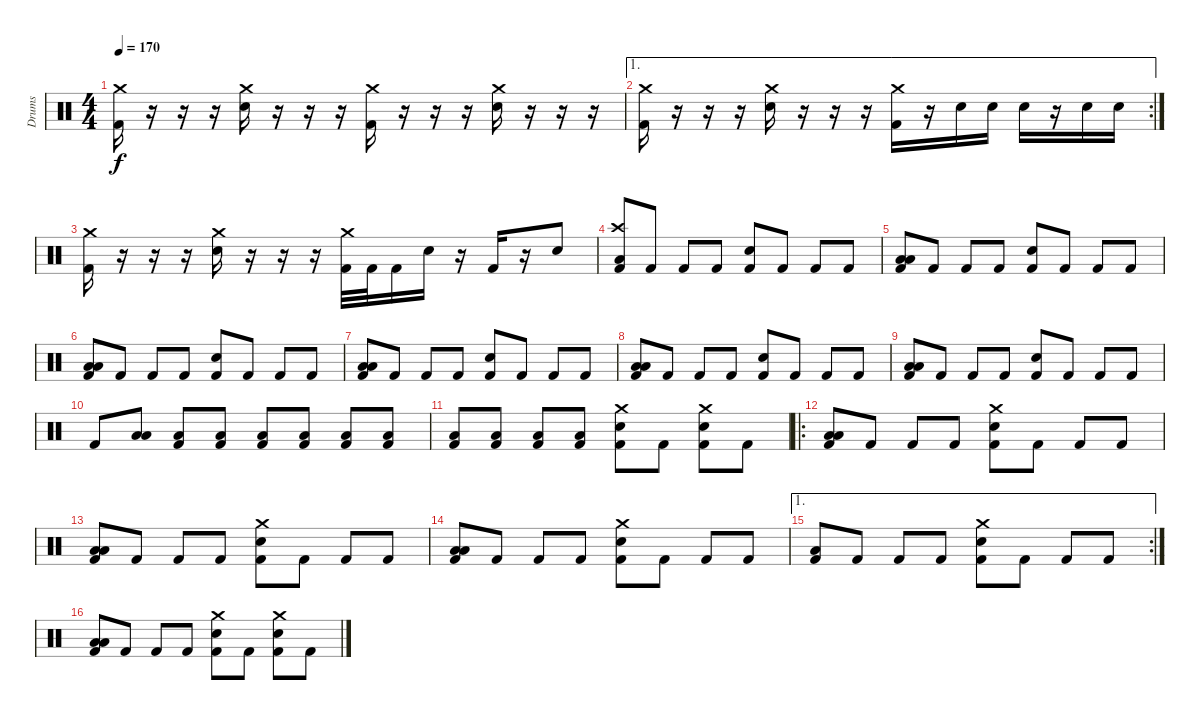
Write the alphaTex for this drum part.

\track ("Drums" "Drums") {instrument percussion}
\staff {score}
\articulation defaults
\ts (4 4)
\tempo 170
\clef neutral
\ks c
("Crash medium (hit)" "Kick (hit) 2").16{dy f} r.16 r.16 r.16 ("Crash medium (hit)" "Electric Snare (hit)").16 r.16 r.16 r.16 ("Crash medium (hit)" "Kick (hit) 2").16 r.16 r.16 r.16 ("Crash medium (hit)" "Electric Snare (hit)").16 r.16 r.16 r.16 |
\ae 1
\rc 2
("Crash medium (hit)" "Kick (hit) 2").16 r.16 r.16 r.16 ("Crash medium (hit)" "Electric Snare (hit)").16 r.16 r.16 r.16 ("Crash medium (hit)" "Kick (hit) 2").16 r.16 "Electric Snare (hit)".16 "Electric Snare (hit)".16 "Electric Snare (hit)".16 r.16 "Electric Snare (hit)".16 "Electric Snare (hit)".16 |
("Crash medium (hit)" "Kick (hit) 2").16 r.16 r.16 r.16 ("Crash medium (hit)" "Electric Snare (hit)").16 r.16 r.16 r.16 ("Crash medium (hit)" "Kick (hit) 2").32 "Kick (hit) 2".32 "Kick (hit) 2".16 "Electric Snare (hit)".16 r.16 "Kick (hit) 2".16 r.16 "Electric Snare (hit)".8 |
("Crash high (hit)" "Low Tom (hit)" "Kick (hit) 2").8 "Kick (hit) 2".8 "Kick (hit) 2".8 "Kick (hit) 2".8 ("Electric Snare (hit)" "Kick (hit) 2").8 "Kick (hit) 2".8 "Kick (hit) 2".8 "Kick (hit) 2".8 |
("Low Tom (hit)" "Low Tom (hit)" "Kick (hit) 2").8 "Kick (hit) 2".8 "Kick (hit) 2".8 "Kick (hit) 2".8 ("Electric Snare (hit)" "Kick (hit) 2").8 "Kick (hit) 2".8 "Kick (hit) 2".8 "Kick (hit) 2".8 |
("Low Tom (hit)" "Low Tom (hit)" "Kick (hit) 2").8 "Kick (hit) 2".8 "Kick (hit) 2".8 "Kick (hit) 2".8 ("Electric Snare (hit)" "Kick (hit) 2").8 "Kick (hit) 2".8 "Kick (hit) 2".8 "Kick (hit) 2".8 |
("Low Tom (hit)" "Low Tom (hit)" "Kick (hit) 2").8 "Kick (hit) 2".8 "Kick (hit) 2".8 "Kick (hit) 2".8 ("Electric Snare (hit)" "Kick (hit) 2").8 "Kick (hit) 2".8 "Kick (hit) 2".8 "Kick (hit) 2".8 |
("Low Tom (hit)" "Low Tom (hit)" "Kick (hit) 2").8 "Kick (hit) 2".8 "Kick (hit) 2".8 "Kick (hit) 2".8 ("Electric Snare (hit)" "Kick (hit) 2").8 "Kick (hit) 2".8 "Kick (hit) 2".8 "Kick (hit) 2".8 |
("Low Tom (hit)" "Low Tom (hit)" "Kick (hit) 2").8 "Kick (hit) 2".8 "Kick (hit) 2".8 "Kick (hit) 2".8 ("Electric Snare (hit)" "Kick (hit) 2").8 "Kick (hit) 2".8 "Kick (hit) 2".8 "Kick (hit) 2".8 |
"Kick (hit) 2".8 ("Low Tom (hit)" "Low Tom (hit)").8 ("Low Tom (hit)" "Kick (hit) 2").8 ("Low Tom (hit)" "Kick (hit) 2").8 ("Low Tom (hit)" "Kick (hit) 2").8 ("Low Tom (hit)" "Kick (hit) 2").8 ("Low Tom (hit)" "Kick (hit) 2").8 ("Low Tom (hit)" "Kick (hit) 2").8 |
("Low Tom (hit)" "Kick (hit) 2").8 ("Low Tom (hit)" "Kick (hit) 2").8 ("Low Tom (hit)" "Kick (hit) 2").8 ("Low Tom (hit)" "Kick (hit) 2").8 ("Crash medium (hit)" "Electric Snare (hit)" "Kick (hit) 2").8 "Kick (hit) 2".8 ("Crash medium (hit)" "Electric Snare (hit)" "Kick (hit) 2").8 "Kick (hit) 2".8 |
\ro
("Low Tom (hit)" "Low Tom (hit)" "Kick (hit) 2").8 "Kick (hit) 2".8 "Kick (hit) 2".8 "Kick (hit) 2".8 ("Crash medium (hit)" "Electric Snare (hit)" "Kick (hit) 2").8 "Kick (hit) 2".8 "Kick (hit) 2".8 "Kick (hit) 2".8 |
("Low Tom (hit)" "Low Tom (hit)" "Kick (hit) 2").8 "Kick (hit) 2".8 "Kick (hit) 2".8 "Kick (hit) 2".8 ("Crash medium (hit)" "Electric Snare (hit)" "Kick (hit) 2").8 "Kick (hit) 2".8 "Kick (hit) 2".8 "Kick (hit) 2".8 |
("Low Tom (hit)" "Low Tom (hit)" "Kick (hit) 2").8 "Kick (hit) 2".8 "Kick (hit) 2".8 "Kick (hit) 2".8 ("Crash medium (hit)" "Electric Snare (hit)" "Kick (hit) 2").8 "Kick (hit) 2".8 "Kick (hit) 2".8 "Kick (hit) 2".8 |
\ae 1
\rc 2
("Low Tom (hit)" "Kick (hit) 2").8 "Kick (hit) 2".8 "Kick (hit) 2".8 "Kick (hit) 2".8 ("Crash medium (hit)" "Electric Snare (hit)" "Kick (hit) 2").8 "Kick (hit) 2".8 "Kick (hit) 2".8 "Kick (hit) 2".8 |
("Low Tom (hit)" "Low Tom (hit)" "Kick (hit) 2").8 "Kick (hit) 2".8 "Kick (hit) 2".8 "Kick (hit) 2".8 ("Crash medium (hit)" "Electric Snare (hit)" "Kick (hit) 2").8 "Kick (hit) 2".8 ("Crash medium (hit)" "Electric Snare (hit)" "Kick (hit) 2").8 "Kick (hit) 2".8
